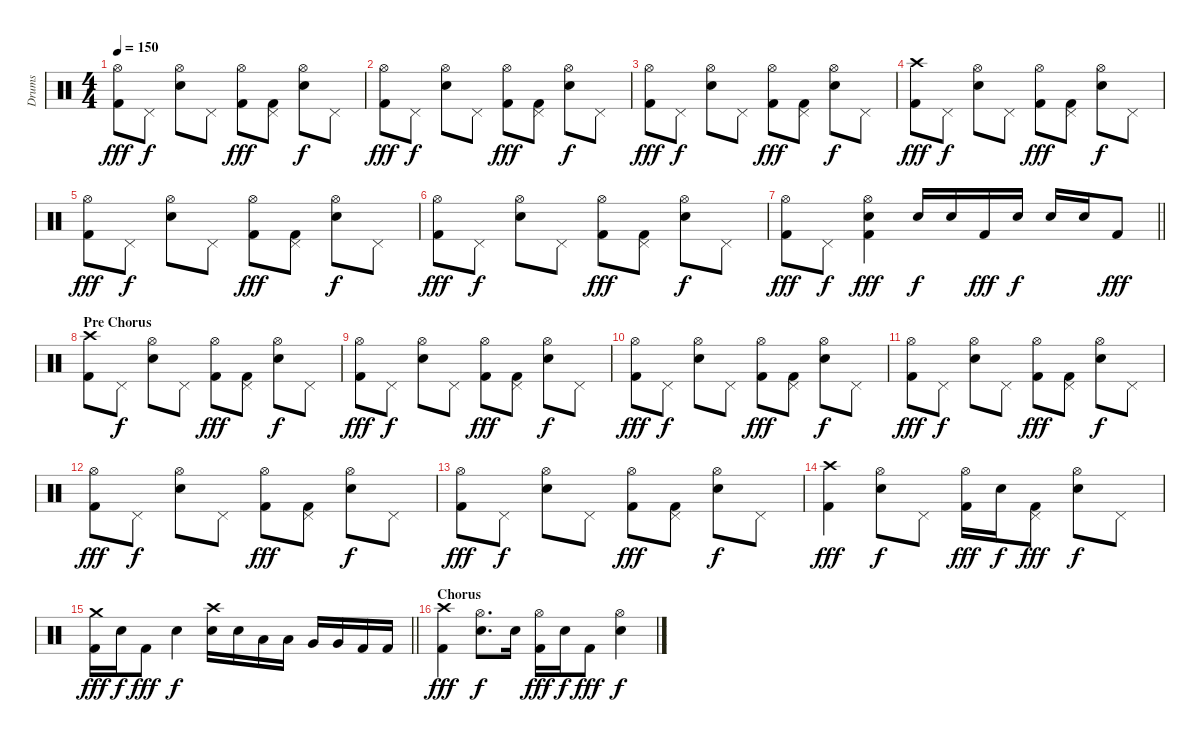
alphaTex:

\track ("Drums" "Drums") {instrument percussion}
\staff {score}
\articulation defaults
\ts (4 4)
\tempo 150
\clef neutral
\ks c
("Hi-Hat (open)" "Kick (hit) 2").8{dy fff} "Pedal Hi-Hat (hit)".8{dy f} ("Hi-Hat (open)" "Snare (hit) 2").8 "Pedal Hi-Hat (hit)".8 ("Hi-Hat (open)" "Kick (hit) 2").8{dy fff} ("Pedal Hi-Hat (hit)" "Kick (hit) 2").8 ("Hi-Hat (open)" "Snare (hit) 2").8{dy f} "Pedal Hi-Hat (hit)".8 |
("Hi-Hat (open)" "Kick (hit) 2").8{dy fff} "Pedal Hi-Hat (hit)".8{dy f} ("Hi-Hat (open)" "Snare (hit) 2").8 "Pedal Hi-Hat (hit)".8 ("Hi-Hat (open)" "Kick (hit) 2").8{dy fff} ("Pedal Hi-Hat (hit)" "Kick (hit) 2").8 ("Hi-Hat (open)" "Snare (hit) 2").8{dy f} "Pedal Hi-Hat (hit)".8 |
("Hi-Hat (open)" "Kick (hit) 2").8{dy fff} "Pedal Hi-Hat (hit)".8{dy f} ("Hi-Hat (open)" "Snare (hit) 2").8 "Pedal Hi-Hat (hit)".8 ("Hi-Hat (open)" "Kick (hit) 2").8{dy fff} ("Pedal Hi-Hat (hit)" "Kick (hit) 2").8 ("Hi-Hat (open)" "Snare (hit) 2").8{dy f} "Pedal Hi-Hat (hit)".8 |
("Crash high (hit)" "Kick (hit) 2").8{dy fff} "Pedal Hi-Hat (hit)".8{dy f} ("Hi-Hat (open)" "Snare (hit) 2").8 "Pedal Hi-Hat (hit)".8 ("Hi-Hat (open)" "Kick (hit) 2").8{dy fff} ("Pedal Hi-Hat (hit)" "Kick (hit) 2").8 ("Hi-Hat (open)" "Snare (hit) 2").8{dy f} "Pedal Hi-Hat (hit)".8 |
("Hi-Hat (open)" "Kick (hit) 2").8{dy fff} "Pedal Hi-Hat (hit)".8{dy f} ("Hi-Hat (open)" "Snare (hit) 2").8 "Pedal Hi-Hat (hit)".8 ("Hi-Hat (open)" "Kick (hit) 2").8{dy fff} ("Pedal Hi-Hat (hit)" "Kick (hit) 2").8 ("Hi-Hat (open)" "Snare (hit) 2").8{dy f} "Pedal Hi-Hat (hit)".8 |
("Hi-Hat (open)" "Kick (hit) 2").8{dy fff} "Pedal Hi-Hat (hit)".8{dy f} ("Hi-Hat (open)" "Snare (hit) 2").8 "Pedal Hi-Hat (hit)".8 ("Hi-Hat (open)" "Kick (hit) 2").8{dy fff} ("Pedal Hi-Hat (hit)" "Kick (hit) 2").8 ("Hi-Hat (open)" "Snare (hit) 2").8{dy f} "Pedal Hi-Hat (hit)".8 |
\barLineRight lightlight
("Hi-Hat (open)" "Kick (hit) 2").8{dy fff} "Pedal Hi-Hat (hit)".8{dy f} ("Hi-Hat (open)" "Snare (hit) 2" "Kick (hit) 2").4{dy fff} "Snare (hit) 2".16{dy f} "Snare (hit) 2".16 "Kick (hit) 2".16{dy fff} "Snare (hit) 2".16{dy f} "Snare (hit) 2".16 "Snare (hit) 2".16 "Kick (hit) 2".8{dy fff} |
\section ("" "Pre Chorus")
("Crash high (hit)" "Kick (hit) 2").8 "Pedal Hi-Hat (hit)".8{dy f} ("Hi-Hat (open)" "Snare (hit) 2").8 "Pedal Hi-Hat (hit)".8 ("Hi-Hat (open)" "Kick (hit) 2").8{dy fff} ("Pedal Hi-Hat (hit)" "Kick (hit) 2").8 ("Hi-Hat (open)" "Snare (hit) 2").8{dy f} "Pedal Hi-Hat (hit)".8 |
("Hi-Hat (open)" "Kick (hit) 2").8{dy fff} "Pedal Hi-Hat (hit)".8{dy f} ("Hi-Hat (open)" "Snare (hit) 2").8 "Pedal Hi-Hat (hit)".8 ("Hi-Hat (open)" "Kick (hit) 2").8{dy fff} ("Pedal Hi-Hat (hit)" "Kick (hit) 2").8 ("Hi-Hat (open)" "Snare (hit) 2").8{dy f} "Pedal Hi-Hat (hit)".8 |
("Hi-Hat (open)" "Kick (hit) 2").8{dy fff} "Pedal Hi-Hat (hit)".8{dy f} ("Hi-Hat (open)" "Snare (hit) 2").8 "Pedal Hi-Hat (hit)".8 ("Hi-Hat (open)" "Kick (hit) 2").8{dy fff} ("Pedal Hi-Hat (hit)" "Kick (hit) 2").8 ("Hi-Hat (open)" "Snare (hit) 2").8{dy f} "Pedal Hi-Hat (hit)".8 |
("Hi-Hat (open)" "Kick (hit) 2").8{dy fff} "Pedal Hi-Hat (hit)".8{dy f} ("Hi-Hat (open)" "Snare (hit) 2").8 "Pedal Hi-Hat (hit)".8 ("Hi-Hat (open)" "Kick (hit) 2").8{dy fff} ("Pedal Hi-Hat (hit)" "Kick (hit) 2").8 ("Hi-Hat (open)" "Snare (hit) 2").8{dy f} "Pedal Hi-Hat (hit)".8 |
("Hi-Hat (open)" "Kick (hit) 2").8{dy fff} "Pedal Hi-Hat (hit)".8{dy f} ("Hi-Hat (open)" "Snare (hit) 2").8 "Pedal Hi-Hat (hit)".8 ("Hi-Hat (open)" "Kick (hit) 2").8{dy fff} ("Pedal Hi-Hat (hit)" "Kick (hit) 2").8 ("Hi-Hat (open)" "Snare (hit) 2").8{dy f} "Pedal Hi-Hat (hit)".8 |
("Hi-Hat (open)" "Kick (hit) 2").8{dy fff} "Pedal Hi-Hat (hit)".8{dy f} ("Hi-Hat (open)" "Snare (hit) 2").8 "Pedal Hi-Hat (hit)".8 ("Hi-Hat (open)" "Kick (hit) 2").8{dy fff} ("Pedal Hi-Hat (hit)" "Kick (hit) 2").8 ("Hi-Hat (open)" "Snare (hit) 2").8{dy f} "Pedal Hi-Hat (hit)".8 |
("Crash high (hit)" "Kick (hit) 2").4{dy fff} ("Hi-Hat (open)" "Snare (hit) 2").8{dy f} "Pedal Hi-Hat (hit)".8 ("Hi-Hat (open)" "Kick (hit) 2").16{dy fff} "Snare (hit) 2".16{dy f} ("Pedal Hi-Hat (hit)" "Kick (hit) 2").8{dy fff} ("Hi-Hat (open)" "Snare (hit) 2").8{dy f} "Pedal Hi-Hat (hit)".8 |
\barLineRight lightlight
("Crash medium (hit)" "Kick (hit) 2").16{dy fff} "Snare (hit) 2".16{dy f} "Kick (hit) 2".8{dy fff} "Snare (hit) 2".4{dy f} ("Crash high (hit)" "Snare (hit) 2").16 "Snare (hit) 2".16 "Low Tom (hit)".16 "Low Tom (hit)".16 "Very Low Tom (hit)".16 "Very Low Tom (hit)".16 "Kick (hit) 2".16 "Kick (hit) 2".16 |
\section ("" "Chorus")
("Crash high (hit)" "Kick (hit) 2").4{dy fff} ("Hi-Hat (open)" "Snare (hit) 2").8{d dy f} "Snare (hit) 2".16 ("Hi-Hat (open)" "Kick (hit) 2").16{dy fff} "Snare (hit) 2".16{dy f} "Kick (hit) 2".8{dy fff} ("Hi-Hat (open)" "Snare (hit) 2").4{dy f}
